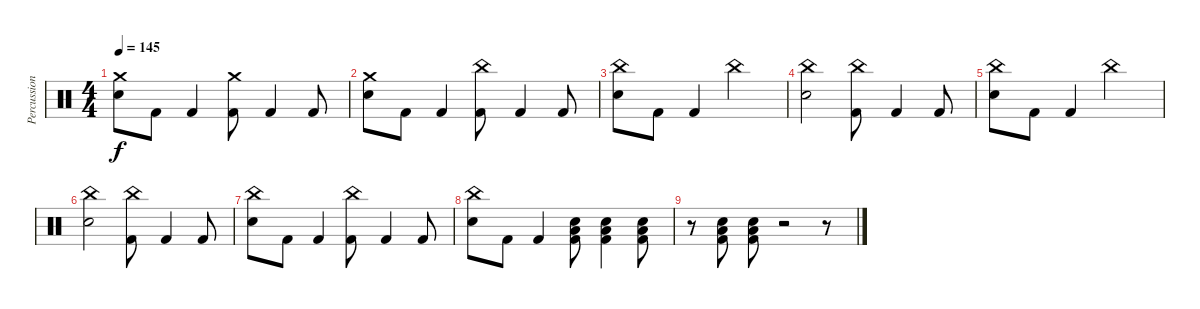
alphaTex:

\track ("Percussion" "Percussion") {instrument percussion}
\staff {score}
\articulation defaults
\ts (4 4)
\tempo 145
\clef neutral
\ks c
("Crash medium (hit)" "Electric Snare (hit)").8{dy f} "Kick (hit) 2".8 "Kick (hit) 2".4 ("Crash medium (hit)" "Kick (hit) 2").8 "Kick (hit) 2".4 "Kick (hit) 2".8 |
("Crash medium (hit)" "Electric Snare (hit)").8 "Kick (hit) 2".8 "Kick (hit) 2".4 ("China (hit)" "Kick (hit) 2").8 "Kick (hit) 2".4 "Kick (hit) 2".8 |
("China (hit)" "Electric Snare (hit)").8 "Kick (hit) 2".8 "Kick (hit) 2".4 "China (hit)".2 |
("China (hit)" "Electric Snare (hit)").2 ("China (hit)" "Kick (hit) 2").8 "Kick (hit) 2".4 "Kick (hit) 2".8 |
("China (hit)" "Electric Snare (hit)").8 "Kick (hit) 2".8 "Kick (hit) 2".4 "China (hit)".2 |
("China (hit)" "Electric Snare (hit)").2 ("China (hit)" "Kick (hit) 2").8 "Kick (hit) 2".4 "Kick (hit) 2".8 |
("China (hit)" "Electric Snare (hit)").8 "Kick (hit) 2".8 "Kick (hit) 2".4 ("China (hit)" "Kick (hit) 2").8 "Kick (hit) 2".4 "Kick (hit) 2".8 |
("China (hit)" "Electric Snare (hit)").8 "Kick (hit) 2".8 "Kick (hit) 2".4 ("Electric Snare (hit)" "Low Tom (hit)" "Kick (hit) 2").8 ("Electric Snare (hit)" "Low Tom (hit)" "Kick (hit) 2").4 ("Electric Snare (hit)" "Low Tom (hit)" "Kick (hit) 2").8 |
r.8 ("Electric Snare (hit)" "Low Tom (hit)" "Kick (hit) 2").8 ("Electric Snare (hit)" "Low Tom (hit)" "Kick (hit) 2").8 r.2 r.8
